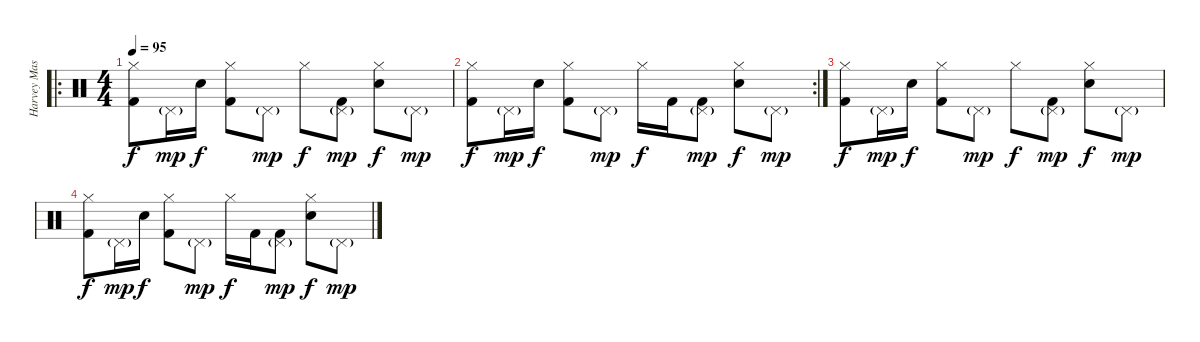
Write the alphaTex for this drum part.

\track ("Harvey Mason (batterie)" "Harvey Mas") {instrument percussion}
\staff {score}
\articulation defaults
\ro
\ts (4 4)
\tempo 95
\clef neutral
\ks c
("Kick (hit) 2" "Hi-Hat (closed)").8{dy f} "Pedal Hi-Hat (hit)"{g}.16{dy mp} "Electric Snare (hit)".16{dy f} ("Kick (hit) 2" "Hi-Hat (closed)").8 "Pedal Hi-Hat (hit)"{g}.8{dy mp} "Hi-Hat (closed)".8{dy f} ("Kick (hit) 2" "Pedal Hi-Hat (hit)"{g}).8{dy mp} ("Electric Snare (hit)" "Hi-Hat (closed)").8{dy f} "Pedal Hi-Hat (hit)"{g}.8{dy mp} |
\rc 2
("Kick (hit) 2" "Hi-Hat (closed)").8{dy f} "Pedal Hi-Hat (hit)"{g}.16{dy mp} "Electric Snare (hit)".16{dy f} ("Kick (hit) 2" "Hi-Hat (closed)").8 "Pedal Hi-Hat (hit)"{g}.8{dy mp} "Hi-Hat (closed)".16{dy f} "Kick (hit) 2".16 ("Kick (hit) 2" "Pedal Hi-Hat (hit)"{g}).8{dy mp} ("Electric Snare (hit)" "Hi-Hat (closed)").8{dy f} "Pedal Hi-Hat (hit)"{g}.8{dy mp} |
("Kick (hit) 2" "Hi-Hat (closed)").8{dy f} "Pedal Hi-Hat (hit)"{g}.16{dy mp} "Electric Snare (hit)".16{dy f} ("Kick (hit) 2" "Hi-Hat (closed)").8 "Pedal Hi-Hat (hit)"{g}.8{dy mp} "Hi-Hat (closed)".8{dy f} ("Kick (hit) 2" "Pedal Hi-Hat (hit)"{g}).8{dy mp} ("Electric Snare (hit)" "Hi-Hat (closed)").8{dy f} "Pedal Hi-Hat (hit)"{g}.8{dy mp} |
("Kick (hit) 2" "Hi-Hat (closed)").8{dy f} "Pedal Hi-Hat (hit)"{g}.16{dy mp} "Electric Snare (hit)".16{dy f} ("Kick (hit) 2" "Hi-Hat (closed)").8 "Pedal Hi-Hat (hit)"{g}.8{dy mp} "Hi-Hat (closed)".16{dy f} "Kick (hit) 2".16 ("Kick (hit) 2" "Pedal Hi-Hat (hit)"{g}).8{dy mp} ("Electric Snare (hit)" "Hi-Hat (closed)").8{dy f} "Pedal Hi-Hat (hit)"{g}.8{dy mp}
